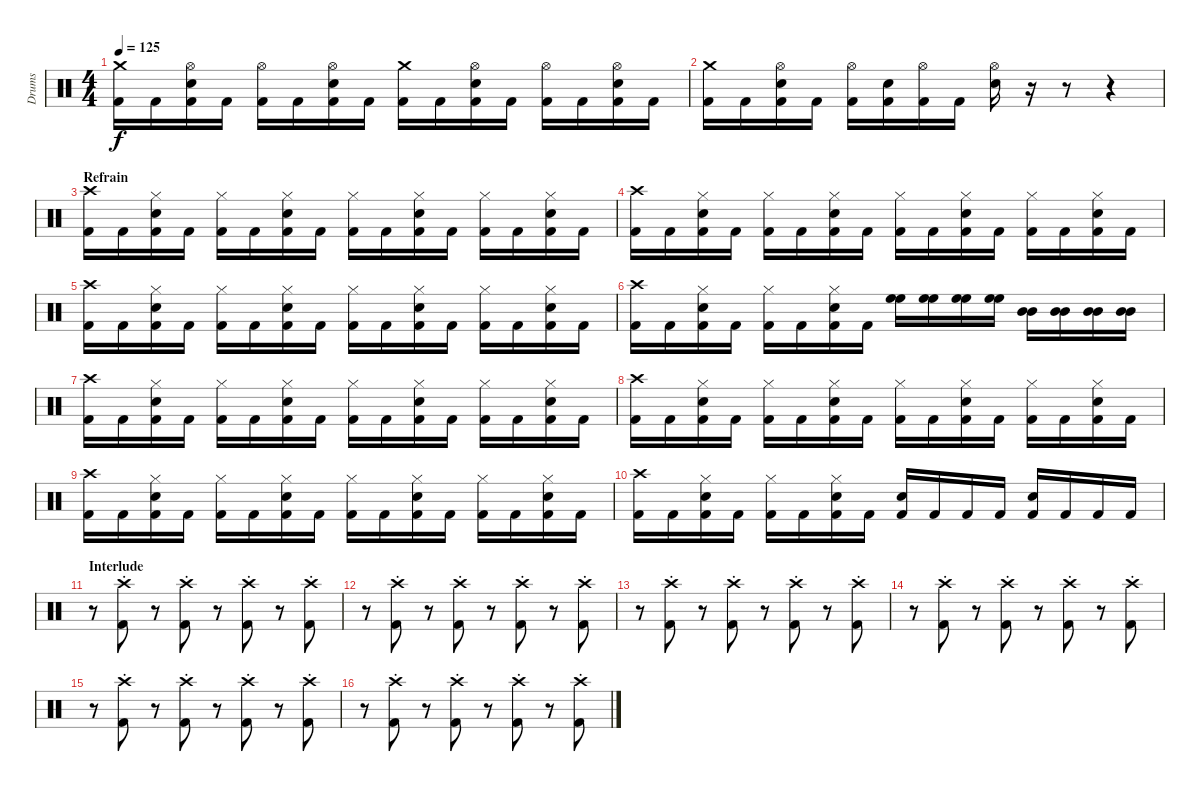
\track ("Drums" "Drums") {instrument percussion}
\staff {score}
\articulation defaults
\ts (4 4)
\tempo 125
\clef neutral
\ks c
("Crash medium (hit)" "Kick (hit) 2").16{dy f} "Kick (hit) 2".16 ("Hi-Hat (open)" "Snare (hit) 2" "Kick (hit) 2").16 "Kick (hit) 2".16 ("Hi-Hat (open)" "Kick (hit) 2").16 "Kick (hit) 2".16 ("Hi-Hat (open)" "Snare (hit) 2" "Kick (hit) 2").16 "Kick (hit) 2".16 ("Crash medium (hit)" "Kick (hit) 2").16 "Kick (hit) 2".16 ("Hi-Hat (open)" "Snare (hit) 2" "Kick (hit) 2").16 "Kick (hit) 2".16 ("Hi-Hat (open)" "Kick (hit) 2").16 "Kick (hit) 2".16 ("Hi-Hat (open)" "Snare (hit) 2" "Kick (hit) 2").16 "Kick (hit) 2".16 |
("Crash medium (hit)" "Kick (hit) 2").16 "Kick (hit) 2".16 ("Hi-Hat (open)" "Snare (hit) 2" "Kick (hit) 2").16 "Kick (hit) 2".16 ("Hi-Hat (open)" "Kick (hit) 2").16 ("Snare (hit) 2" "Kick (hit) 2").16 ("Hi-Hat (open)" "Kick (hit) 2").16 "Kick (hit) 2".16 ("Hi-Hat (open)" "Snare (hit) 2").16 r.16 r.8 r.4 |
\section ("" "Refrain")
("Crash high (hit)" "Kick (hit) 2").16 "Kick (hit) 2".16 ("Hi-Hat (closed)" "Snare (hit) 2" "Kick (hit) 2").16 "Kick (hit) 2".16 ("Hi-Hat (closed)" "Kick (hit) 2").16 "Kick (hit) 2".16 ("Hi-Hat (closed)" "Snare (hit) 2" "Kick (hit) 2").16 "Kick (hit) 2".16 ("Hi-Hat (closed)" "Kick (hit) 2").16 "Kick (hit) 2".16 ("Hi-Hat (closed)" "Snare (hit) 2" "Kick (hit) 2").16 "Kick (hit) 2".16 ("Hi-Hat (closed)" "Kick (hit) 2").16 "Kick (hit) 2".16 ("Hi-Hat (closed)" "Snare (hit) 2" "Kick (hit) 2").16 "Kick (hit) 2".16 |
("Crash high (hit)" "Kick (hit) 2").16 "Kick (hit) 2".16 ("Hi-Hat (closed)" "Snare (hit) 2" "Kick (hit) 2").16 "Kick (hit) 2".16 ("Hi-Hat (closed)" "Kick (hit) 2").16 "Kick (hit) 2".16 ("Hi-Hat (closed)" "Snare (hit) 2" "Kick (hit) 2").16 "Kick (hit) 2".16 ("Hi-Hat (closed)" "Kick (hit) 2").16 "Kick (hit) 2".16 ("Hi-Hat (closed)" "Snare (hit) 2" "Kick (hit) 2").16 "Kick (hit) 2".16 ("Hi-Hat (closed)" "Kick (hit) 2").16 "Kick (hit) 2".16 ("Hi-Hat (closed)" "Snare (hit) 2" "Kick (hit) 2").16 "Kick (hit) 2".16 |
("Crash high (hit)" "Kick (hit) 2").16 "Kick (hit) 2".16 ("Hi-Hat (closed)" "Snare (hit) 2" "Kick (hit) 2").16 "Kick (hit) 2".16 ("Hi-Hat (closed)" "Kick (hit) 2").16 "Kick (hit) 2".16 ("Hi-Hat (closed)" "Snare (hit) 2" "Kick (hit) 2").16 "Kick (hit) 2".16 ("Hi-Hat (closed)" "Kick (hit) 2").16 "Kick (hit) 2".16 ("Hi-Hat (closed)" "Snare (hit) 2" "Kick (hit) 2").16 "Kick (hit) 2".16 ("Hi-Hat (closed)" "Kick (hit) 2").16 "Kick (hit) 2".16 ("Hi-Hat (closed)" "Snare (hit) 2" "Kick (hit) 2").16 "Kick (hit) 2".16 |
("Crash high (hit)" "Kick (hit) 2").16 "Kick (hit) 2".16 ("Hi-Hat (closed)" "Snare (hit) 2" "Kick (hit) 2").16 "Kick (hit) 2".16 ("Hi-Hat (closed)" "Kick (hit) 2").16 "Kick (hit) 2".16 ("Hi-Hat (closed)" "Snare (hit) 2" "Kick (hit) 2").16 "Kick (hit) 2".16 ("High Floor Tom (hit)" "High Floor Tom (hit)").16 ("High Floor Tom (hit)" "High Floor Tom (hit)").16 ("High Floor Tom (hit)" "High Floor Tom (hit)").16 ("High Floor Tom (hit)" "High Floor Tom (hit)").16 ("Mid Tom (hit)" "Mid Tom (hit)").16 ("Mid Tom (hit)" "Mid Tom (hit)").16 ("Mid Tom (hit)" "Mid Tom (hit)").16 ("Mid Tom (hit)" "Mid Tom (hit)").16 |
("Crash high (hit)" "Kick (hit) 2").16 "Kick (hit) 2".16 ("Hi-Hat (closed)" "Snare (hit) 2" "Kick (hit) 2").16 "Kick (hit) 2".16 ("Hi-Hat (closed)" "Kick (hit) 2").16 "Kick (hit) 2".16 ("Hi-Hat (closed)" "Snare (hit) 2" "Kick (hit) 2").16 "Kick (hit) 2".16 ("Hi-Hat (closed)" "Kick (hit) 2").16 "Kick (hit) 2".16 ("Hi-Hat (closed)" "Snare (hit) 2" "Kick (hit) 2").16 "Kick (hit) 2".16 ("Hi-Hat (closed)" "Kick (hit) 2").16 "Kick (hit) 2".16 ("Hi-Hat (closed)" "Snare (hit) 2" "Kick (hit) 2").16 "Kick (hit) 2".16 |
("Crash high (hit)" "Kick (hit) 2").16 "Kick (hit) 2".16 ("Hi-Hat (closed)" "Snare (hit) 2" "Kick (hit) 2").16 "Kick (hit) 2".16 ("Hi-Hat (closed)" "Kick (hit) 2").16 "Kick (hit) 2".16 ("Hi-Hat (closed)" "Snare (hit) 2" "Kick (hit) 2").16 "Kick (hit) 2".16 ("Hi-Hat (closed)" "Kick (hit) 2").16 "Kick (hit) 2".16 ("Hi-Hat (closed)" "Snare (hit) 2" "Kick (hit) 2").16 "Kick (hit) 2".16 ("Hi-Hat (closed)" "Kick (hit) 2").16 "Kick (hit) 2".16 ("Hi-Hat (closed)" "Snare (hit) 2" "Kick (hit) 2").16 "Kick (hit) 2".16 |
("Crash high (hit)" "Kick (hit) 2").16 "Kick (hit) 2".16 ("Hi-Hat (closed)" "Snare (hit) 2" "Kick (hit) 2").16 "Kick (hit) 2".16 ("Hi-Hat (closed)" "Kick (hit) 2").16 "Kick (hit) 2".16 ("Hi-Hat (closed)" "Snare (hit) 2" "Kick (hit) 2").16 "Kick (hit) 2".16 ("Hi-Hat (closed)" "Kick (hit) 2").16 "Kick (hit) 2".16 ("Hi-Hat (closed)" "Snare (hit) 2" "Kick (hit) 2").16 "Kick (hit) 2".16 ("Hi-Hat (closed)" "Kick (hit) 2").16 "Kick (hit) 2".16 ("Hi-Hat (closed)" "Snare (hit) 2" "Kick (hit) 2").16 "Kick (hit) 2".16 |
("Crash high (hit)" "Kick (hit) 2").16 "Kick (hit) 2".16 ("Hi-Hat (closed)" "Snare (hit) 2" "Kick (hit) 2").16 "Kick (hit) 2".16 ("Hi-Hat (closed)" "Kick (hit) 2").16 "Kick (hit) 2".16 ("Hi-Hat (closed)" "Snare (hit) 2" "Kick (hit) 2").16 "Kick (hit) 2".16 ("Snare (hit) 2" "Kick (hit) 2").16 "Kick (hit) 2".16 "Kick (hit) 2".16 "Kick (hit) 2".16 ("Snare (hit) 2" "Kick (hit) 2").16 "Kick (hit) 2".16 "Kick (hit) 2".16 "Kick (hit) 2".16 |
\section ("" "Interlude")
r.8 ("Crash high (hit)"{st} "Kick (hit) 2").8 r.8 ("Crash high (hit)"{st} "Kick (hit) 2").8 r.8 ("Crash high (hit)"{st} "Kick (hit) 2").8 r.8 ("Crash high (hit)"{st} "Kick (hit) 2").8 |
r.8 ("Crash high (hit)"{st} "Kick (hit) 2").8 r.8 ("Crash high (hit)"{st} "Kick (hit) 2").8 r.8 ("Crash high (hit)"{st} "Kick (hit) 2").8 r.8 ("Crash high (hit)"{st} "Kick (hit) 2").8 |
r.8 ("Crash high (hit)"{st} "Kick (hit) 2").8 r.8 ("Crash high (hit)"{st} "Kick (hit) 2").8 r.8 ("Crash high (hit)"{st} "Kick (hit) 2").8 r.8 ("Crash high (hit)"{st} "Kick (hit) 2").8 |
r.8 ("Crash high (hit)"{st} "Kick (hit) 2").8 r.8 ("Crash high (hit)"{st} "Kick (hit) 2").8 r.8 ("Crash high (hit)"{st} "Kick (hit) 2").8 r.8 ("Crash high (hit)"{st} "Kick (hit) 2").8 |
r.8 ("Crash high (hit)"{st} "Kick (hit) 2").8 r.8 ("Crash high (hit)"{st} "Kick (hit) 2").8 r.8 ("Crash high (hit)"{st} "Kick (hit) 2").8 r.8 ("Crash high (hit)"{st} "Kick (hit) 2").8 |
r.8 ("Crash high (hit)"{st} "Kick (hit) 2").8 r.8 ("Crash high (hit)"{st} "Kick (hit) 2").8 r.8 ("Crash high (hit)"{st} "Kick (hit) 2").8 r.8 ("Crash high (hit)"{st} "Kick (hit) 2").8
